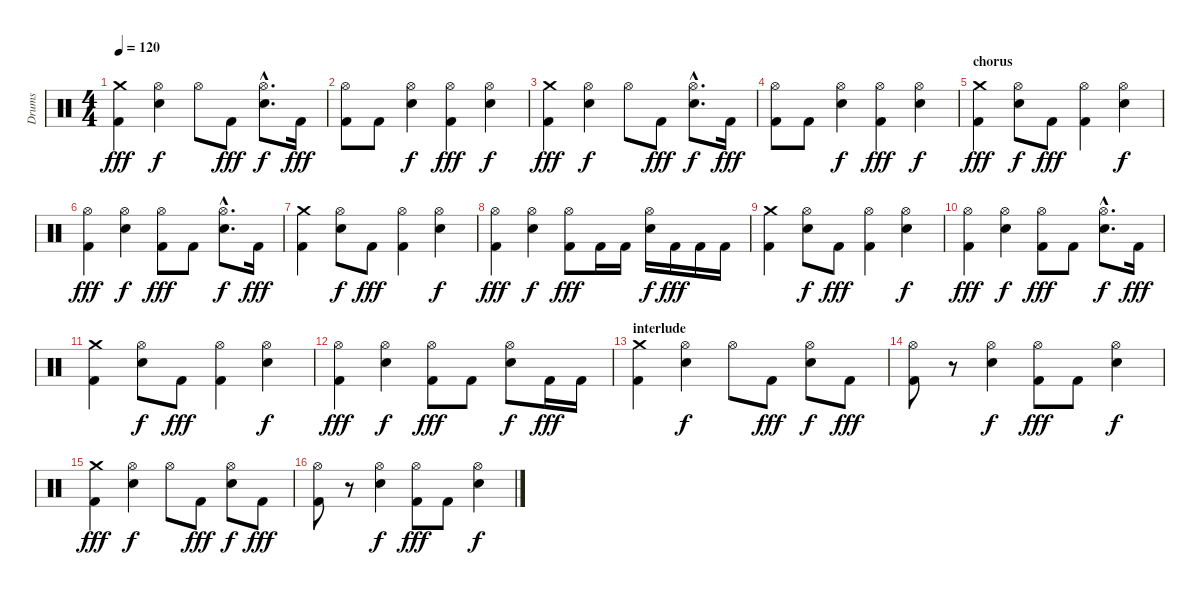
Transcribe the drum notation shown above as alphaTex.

\track ("Drums" "Drums") {instrument percussion}
\staff {score}
\articulation defaults
\ts (4 4)
\tempo 120
\clef neutral
\ks c
("Crash medium (hit)" "Kick (hit) 2").4{dy fff} ("Hi-Hat (open)" "Electric Snare (hit)").4{dy f} "Hi-Hat (open)".8 "Kick (hit) 2".8{dy fff} ("Hi-Hat (open)"{hac} "Electric Snare (hit)"{hac}).8{d dy f} "Kick (hit) 2".16{dy fff} |
("Hi-Hat (open)" "Kick (hit) 2").8 "Kick (hit) 2".8 ("Hi-Hat (open)" "Electric Snare (hit)").4{dy f} ("Hi-Hat (open)" "Kick (hit) 2").4{dy fff} ("Hi-Hat (open)" "Electric Snare (hit)").4{dy f} |
("Crash medium (hit)" "Kick (hit) 2").4{dy fff} ("Hi-Hat (open)" "Electric Snare (hit)").4{dy f} "Hi-Hat (open)".8 "Kick (hit) 2".8{dy fff} ("Hi-Hat (open)"{hac} "Electric Snare (hit)"{hac}).8{d dy f} "Kick (hit) 2".16{dy fff} |
("Hi-Hat (open)" "Kick (hit) 2").8 "Kick (hit) 2".8 ("Hi-Hat (open)" "Electric Snare (hit)").4{dy f} ("Hi-Hat (open)" "Kick (hit) 2").4{dy fff} ("Hi-Hat (open)" "Electric Snare (hit)").4{dy f} |
\section ("" "chorus")
("Crash medium (hit)" "Kick (hit) 2").4{dy fff} ("Hi-Hat (open)" "Electric Snare (hit)").8{dy f} "Kick (hit) 2".8{dy fff} ("Hi-Hat (open)" "Kick (hit) 2").4 ("Hi-Hat (open)" "Electric Snare (hit)").4{dy f} |
("Hi-Hat (open)" "Kick (hit) 2").4{dy fff} ("Hi-Hat (open)" "Electric Snare (hit)").4{dy f} ("Hi-Hat (open)" "Kick (hit) 2").8{dy fff} "Kick (hit) 2".8 ("Hi-Hat (open)"{hac} "Electric Snare (hit)"{hac}).8{d dy f} "Kick (hit) 2".16{dy fff} |
("Crash medium (hit)" "Kick (hit) 2").4 ("Hi-Hat (open)" "Electric Snare (hit)").8{dy f} "Kick (hit) 2".8{dy fff} ("Hi-Hat (open)" "Kick (hit) 2").4 ("Hi-Hat (open)" "Electric Snare (hit)").4{dy f} |
("Hi-Hat (open)" "Kick (hit) 2").4{dy fff} ("Hi-Hat (open)" "Electric Snare (hit)").4{dy f} ("Hi-Hat (open)" "Kick (hit) 2").8{dy fff} "Kick (hit) 2".16 "Kick (hit) 2".16 ("Hi-Hat (open)" "Electric Snare (hit)").16{dy f} "Kick (hit) 2".16{dy fff} "Kick (hit) 2".16 "Kick (hit) 2".16 |
("Crash medium (hit)" "Kick (hit) 2").4 ("Hi-Hat (open)" "Electric Snare (hit)").8{dy f} "Kick (hit) 2".8{dy fff} ("Hi-Hat (open)" "Kick (hit) 2").4 ("Hi-Hat (open)" "Electric Snare (hit)").4{dy f} |
("Hi-Hat (open)" "Kick (hit) 2").4{dy fff} ("Hi-Hat (open)" "Electric Snare (hit)").4{dy f} ("Hi-Hat (open)" "Kick (hit) 2").8{dy fff} "Kick (hit) 2".8 ("Hi-Hat (open)"{hac} "Electric Snare (hit)"{hac}).8{d dy f} "Kick (hit) 2".16{dy fff} |
("Crash medium (hit)" "Kick (hit) 2").4 ("Hi-Hat (open)" "Electric Snare (hit)").8{dy f} "Kick (hit) 2".8{dy fff} ("Hi-Hat (open)" "Kick (hit) 2").4 ("Hi-Hat (open)" "Electric Snare (hit)").4{dy f} |
("Hi-Hat (open)" "Kick (hit) 2").4{dy fff} ("Hi-Hat (open)" "Electric Snare (hit)").4{dy f} ("Hi-Hat (open)" "Kick (hit) 2").8{dy fff} "Kick (hit) 2".8 ("Hi-Hat (open)" "Electric Snare (hit)").8{dy f} "Kick (hit) 2".16{dy fff} "Kick (hit) 2".16 |
\section ("" "interlude")
("Crash medium (hit)" "Kick (hit) 2").4 ("Hi-Hat (open)" "Electric Snare (hit)").4{dy f} "Hi-Hat (open)".8 "Kick (hit) 2".8{dy fff} ("Hi-Hat (open)" "Electric Snare (hit)").8{dy f} "Kick (hit) 2".8{dy fff} |
("Hi-Hat (open)" "Kick (hit) 2").8 r.8 ("Hi-Hat (open)" "Electric Snare (hit)").4{dy f} ("Hi-Hat (open)" "Kick (hit) 2").8{dy fff} "Kick (hit) 2".8 ("Hi-Hat (open)" "Electric Snare (hit)").4{dy f} |
("Crash medium (hit)" "Kick (hit) 2").4{dy fff} ("Hi-Hat (open)" "Electric Snare (hit)").4{dy f} "Hi-Hat (open)".8 "Kick (hit) 2".8{dy fff} ("Hi-Hat (open)" "Electric Snare (hit)").8{dy f} "Kick (hit) 2".8{dy fff} |
("Hi-Hat (open)" "Kick (hit) 2").8 r.8 ("Hi-Hat (open)" "Electric Snare (hit)").4{dy f} ("Hi-Hat (open)" "Kick (hit) 2").8{dy fff} "Kick (hit) 2".8 ("Hi-Hat (open)" "Electric Snare (hit)").4{dy f}
